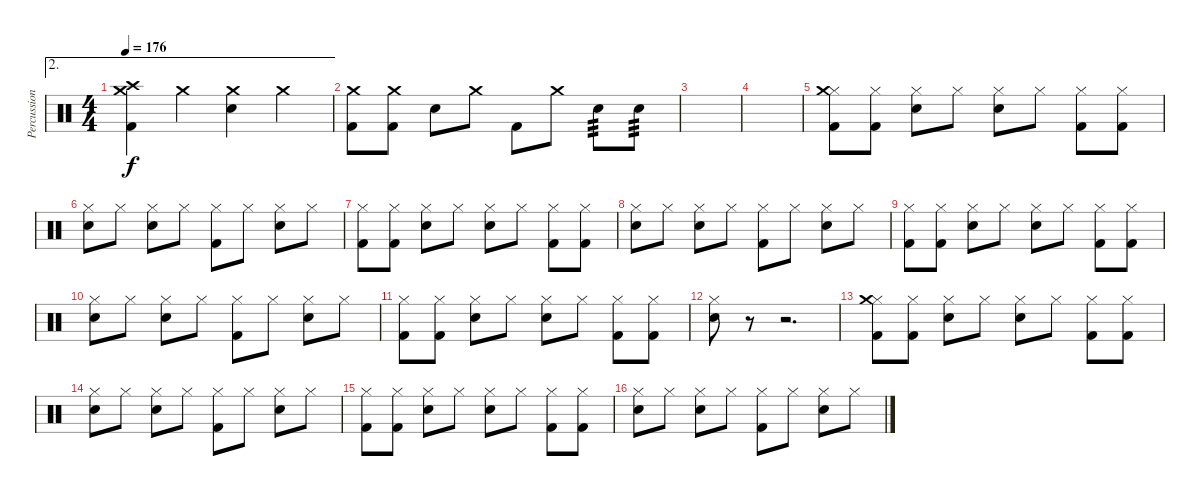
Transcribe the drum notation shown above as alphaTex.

\track ("Percussion" "Percussion") {instrument percussion}
\staff {score}
\articulation defaults
\ae 2
\ts (4 4)
\tempo 176
\clef neutral
\ks c
("Crash medium (hit)" "Crash high (hit)" "Kick (hit) 2").4{dy f} "Crash medium (hit)".4 ("Crash medium (hit)" "Snare (hit) 2").4 "Crash medium (hit)".4 |
("Crash medium (hit)" "Kick (hit) 2").8 ("Crash medium (hit)" "Kick (hit) 2").8 "Snare (hit) 2".8 "Crash medium (hit)".8 "Kick (hit) 2".8 "Crash medium (hit)".8 "Snare (hit) 2".8{tp 3} "Snare (hit) 2".8{tp 3} |
|
|
("Hi-Hat (closed)" "Crash medium (hit)" "Kick (hit) 2").8 ("Hi-Hat (closed)" "Kick (hit) 2").8 ("Hi-Hat (closed)" "Snare (hit) 2").8 "Hi-Hat (closed)".8 ("Hi-Hat (closed)" "Snare (hit) 2").8 "Hi-Hat (closed)".8 ("Hi-Hat (closed)" "Kick (hit) 2").8 ("Hi-Hat (closed)" "Kick (hit) 2").8 |
("Hi-Hat (closed)" "Snare (hit) 2").8 "Hi-Hat (closed)".8 ("Hi-Hat (closed)" "Snare (hit) 2").8 "Hi-Hat (closed)".8 ("Hi-Hat (closed)" "Kick (hit) 2").8 "Hi-Hat (closed)".8 ("Hi-Hat (closed)" "Snare (hit) 2").8 "Hi-Hat (closed)".8 |
("Hi-Hat (closed)" "Kick (hit) 2").8 ("Hi-Hat (closed)" "Kick (hit) 2").8 ("Hi-Hat (closed)" "Snare (hit) 2").8 "Hi-Hat (closed)".8 ("Hi-Hat (closed)" "Snare (hit) 2").8 "Hi-Hat (closed)".8 ("Hi-Hat (closed)" "Kick (hit) 2").8 ("Hi-Hat (closed)" "Kick (hit) 2").8 |
("Hi-Hat (closed)" "Snare (hit) 2").8 "Hi-Hat (closed)".8 ("Hi-Hat (closed)" "Snare (hit) 2").8 "Hi-Hat (closed)".8 ("Hi-Hat (closed)" "Kick (hit) 2").8 "Hi-Hat (closed)".8 ("Hi-Hat (closed)" "Snare (hit) 2").8 "Hi-Hat (closed)".8 |
("Hi-Hat (closed)" "Kick (hit) 2").8 ("Hi-Hat (closed)" "Kick (hit) 2").8 ("Hi-Hat (closed)" "Snare (hit) 2").8 "Hi-Hat (closed)".8 ("Hi-Hat (closed)" "Snare (hit) 2").8 "Hi-Hat (closed)".8 ("Hi-Hat (closed)" "Kick (hit) 2").8 ("Hi-Hat (closed)" "Kick (hit) 2").8 |
("Hi-Hat (closed)" "Snare (hit) 2").8 "Hi-Hat (closed)".8 ("Hi-Hat (closed)" "Snare (hit) 2").8 "Hi-Hat (closed)".8 ("Hi-Hat (closed)" "Kick (hit) 2").8 "Hi-Hat (closed)".8 ("Hi-Hat (closed)" "Snare (hit) 2").8 "Hi-Hat (closed)".8 |
("Hi-Hat (closed)" "Kick (hit) 2").8 ("Hi-Hat (closed)" "Kick (hit) 2").8 ("Hi-Hat (closed)" "Snare (hit) 2").8 "Hi-Hat (closed)".8 ("Hi-Hat (closed)" "Snare (hit) 2").8 "Hi-Hat (closed)".8 ("Hi-Hat (closed)" "Kick (hit) 2").8 ("Hi-Hat (closed)" "Kick (hit) 2").8 |
("Hi-Hat (closed)" "Snare (hit) 2").8 r.8 r.2{d} |
("Hi-Hat (closed)" "Crash medium (hit)" "Kick (hit) 2").8 ("Hi-Hat (closed)" "Kick (hit) 2").8 ("Hi-Hat (closed)" "Snare (hit) 2").8 "Hi-Hat (closed)".8 ("Hi-Hat (closed)" "Snare (hit) 2").8 "Hi-Hat (closed)".8 ("Hi-Hat (closed)" "Kick (hit) 2").8 ("Hi-Hat (closed)" "Kick (hit) 2").8 |
("Hi-Hat (closed)" "Snare (hit) 2").8 "Hi-Hat (closed)".8 ("Hi-Hat (closed)" "Snare (hit) 2").8 "Hi-Hat (closed)".8 ("Hi-Hat (closed)" "Kick (hit) 2").8 "Hi-Hat (closed)".8 ("Hi-Hat (closed)" "Snare (hit) 2").8 "Hi-Hat (closed)".8 |
("Hi-Hat (closed)" "Kick (hit) 2").8 ("Hi-Hat (closed)" "Kick (hit) 2").8 ("Hi-Hat (closed)" "Snare (hit) 2").8 "Hi-Hat (closed)".8 ("Hi-Hat (closed)" "Snare (hit) 2").8 "Hi-Hat (closed)".8 ("Hi-Hat (closed)" "Kick (hit) 2").8 ("Hi-Hat (closed)" "Kick (hit) 2").8 |
("Hi-Hat (closed)" "Snare (hit) 2").8 "Hi-Hat (closed)".8 ("Hi-Hat (closed)" "Snare (hit) 2").8 "Hi-Hat (closed)".8 ("Hi-Hat (closed)" "Kick (hit) 2").8 "Hi-Hat (closed)".8 ("Hi-Hat (closed)" "Snare (hit) 2").8 "Hi-Hat (closed)".8
